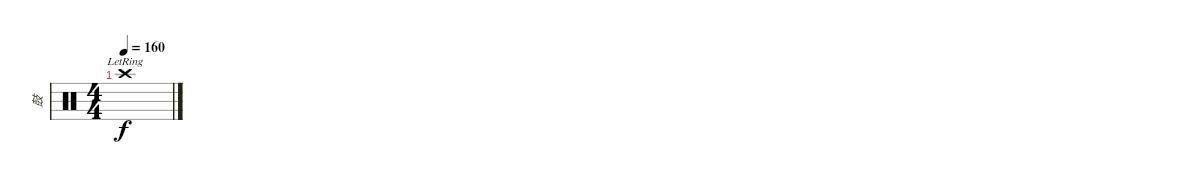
\track ("鼓" "鼓") {instrument percussion}
\staff {score}
\articulation defaults
\ts (4 4)
\tempo 160
\clef neutral
\ks c "Crash high (hit)"{lr}.1{dy f}
